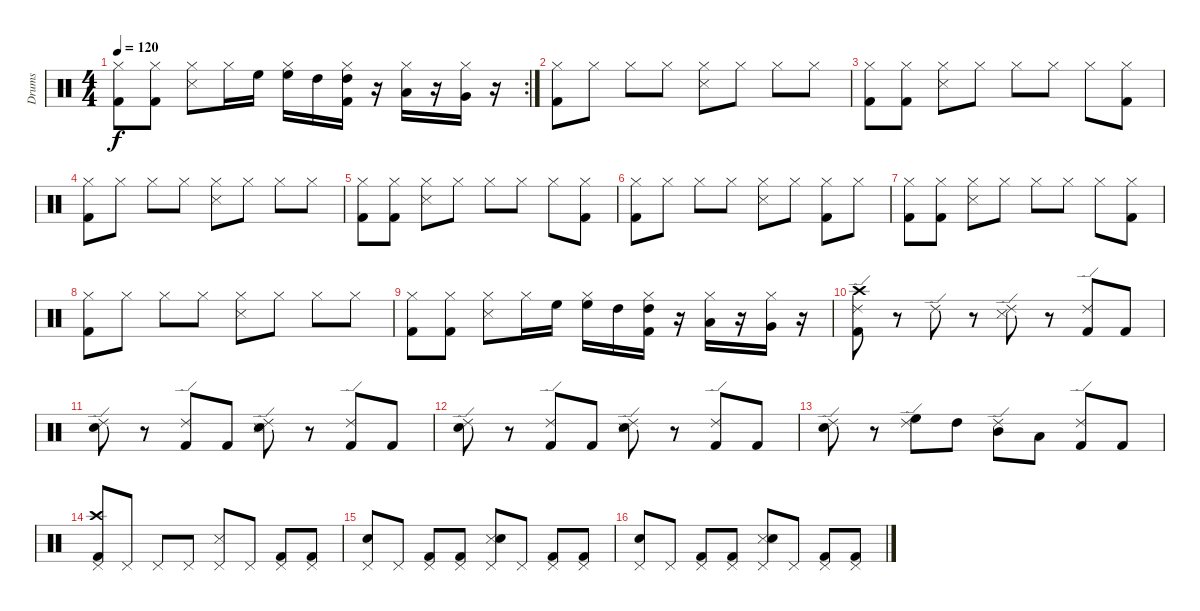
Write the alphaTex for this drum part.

\track ("Drums" "Drums") {instrument percussion}
\staff {score}
\articulation defaults
\rc 2
\ts (4 4)
\tempo 120
\clef neutral
\ks c
("Hi-Hat (closed)" "Kick (hit) 2").8{dy f} ("Hi-Hat (closed)" "Kick (hit) 2").8 ("Hi-Hat (closed)" "Snare (side stick) 3").8 "Hi-Hat (closed)".16 "High Floor Tom (hit)".16 ("Hi-Hat (closed)" "High Floor Tom (hit)").16 "High Tom (hit)".16 ("Hi-Hat (closed)" "Kick (hit) 2" "High Tom (hit)").16 r.16 ("Hi-Hat (closed)" "Low Tom (hit)").16 r.16 ("Hi-Hat (closed)" "Very Low Tom (hit)").16 r.16 |
("Hi-Hat (closed)" "Kick (hit) 2").8 "Hi-Hat (closed)".8 "Hi-Hat (closed)".8 "Hi-Hat (closed)".8 ("Hi-Hat (closed)" "Snare (side stick) 3").8 "Hi-Hat (closed)".8 "Hi-Hat (closed)".8 "Hi-Hat (closed)".8 |
("Hi-Hat (closed)" "Kick (hit) 2").8 ("Hi-Hat (closed)" "Kick (hit) 2").8 ("Hi-Hat (closed)" "Snare (side stick) 3").8 "Hi-Hat (closed)".8 "Hi-Hat (closed)".8 "Hi-Hat (closed)".8 "Hi-Hat (closed)".8 ("Hi-Hat (closed)" "Kick (hit) 2").8 |
("Hi-Hat (closed)" "Kick (hit) 2").8 "Hi-Hat (closed)".8 "Hi-Hat (closed)".8 "Hi-Hat (closed)".8 ("Hi-Hat (closed)" "Snare (side stick) 3").8 "Hi-Hat (closed)".8 "Hi-Hat (closed)".8 "Hi-Hat (closed)".8 |
("Hi-Hat (closed)" "Kick (hit) 2").8 ("Hi-Hat (closed)" "Kick (hit) 2").8 ("Hi-Hat (closed)" "Snare (side stick) 3").8 "Hi-Hat (closed)".8 "Hi-Hat (closed)".8 "Hi-Hat (closed)".8 "Hi-Hat (closed)".8 ("Hi-Hat (closed)" "Kick (hit) 2").8 |
("Hi-Hat (closed)" "Kick (hit) 2").8 "Hi-Hat (closed)".8 "Hi-Hat (closed)".8 "Hi-Hat (closed)".8 ("Hi-Hat (closed)" "Snare (side stick) 3").8 "Hi-Hat (closed)".8 ("Hi-Hat (closed)" "Kick (hit) 2").8 "Hi-Hat (closed)".8 |
("Hi-Hat (closed)" "Kick (hit) 2").8 ("Hi-Hat (closed)" "Kick (hit) 2").8 ("Hi-Hat (closed)" "Snare (side stick) 3").8 "Hi-Hat (closed)".8 "Hi-Hat (closed)".8 "Hi-Hat (closed)".8 "Hi-Hat (closed)".8 ("Hi-Hat (closed)" "Kick (hit) 2").8 |
("Hi-Hat (closed)" "Kick (hit) 2").8 "Hi-Hat (closed)".8 "Hi-Hat (closed)".8 "Hi-Hat (closed)".8 ("Hi-Hat (closed)" "Snare (side stick) 3").8 "Hi-Hat (closed)".8 "Hi-Hat (closed)".8 "Hi-Hat (closed)".8 |
("Hi-Hat (closed)" "Kick (hit) 2").8 ("Hi-Hat (closed)" "Kick (hit) 2").8 ("Hi-Hat (closed)" "Snare (side stick) 3").8 "Hi-Hat (closed)".16 "High Floor Tom (hit)".16 ("Hi-Hat (closed)" "High Floor Tom (hit)").16 "High Tom (hit)".16 ("Hi-Hat (closed)" "Kick (hit) 2" "High Tom (hit)").16 r.16 ("Hi-Hat (closed)" "Low Tom (hit)").16 r.16 ("Hi-Hat (closed)" "Very Low Tom (hit)").16 r.16 |
("Ride (edge) 2" "Kick (hit) 2" "Crash high (hit)").8 r.8 "Ride (edge) 2".8 r.8 ("Ride (edge) 2" "Snare (side stick) 3").8 r.8 ("Ride (edge) 2" "Kick (hit) 2").8 "Kick (hit) 2".8 |
("Ride (edge) 2" "Electric Snare (hit)").8 r.8 ("Ride (edge) 2" "Kick (hit) 2").8 "Kick (hit) 2".8 ("Ride (edge) 2" "Snare (side stick) 3" "Snare (hit) 2").8 r.8 ("Ride (edge) 2" "Kick (hit) 2").8 "Kick (hit) 2".8 |
("Ride (edge) 2" "Electric Snare (hit)").8 r.8 ("Ride (edge) 2" "Kick (hit) 2").8 "Kick (hit) 2".8 ("Ride (edge) 2" "Snare (side stick) 3" "Snare (hit) 2").8 r.8 ("Ride (edge) 2" "Kick (hit) 2").8 "Kick (hit) 2".8 |
("Ride (edge) 2" "Electric Snare (hit)").8 r.8 ("Ride (edge) 2" "High Floor Tom (hit)").8 "High Tom (hit)".8 ("Ride (edge) 2" "Mid Tom (hit)").8 "Low Tom (hit)".8 ("Ride (edge) 2" "Kick (hit) 2").8 "Kick (hit) 2".8 |
("Pedal Hi-Hat (hit)" "Kick (hit) 2" "Crash high (hit)").8 "Pedal Hi-Hat (hit)".8 "Pedal Hi-Hat (hit)".8 "Pedal Hi-Hat (hit)".8 ("Pedal Hi-Hat (hit)" "Snare (side stick) 3").8 "Pedal Hi-Hat (hit)".8 ("Pedal Hi-Hat (hit)" "Kick (hit) 2").8 ("Pedal Hi-Hat (hit)" "Kick (hit) 2").8 |
("Pedal Hi-Hat (hit)" "Electric Snare (hit)").8 "Pedal Hi-Hat (hit)".8 ("Pedal Hi-Hat (hit)" "Kick (hit) 2").8 ("Pedal Hi-Hat (hit)" "Kick (hit) 2").8 ("Pedal Hi-Hat (hit)" "Snare (side stick) 3" "Snare (hit) 2").8 "Pedal Hi-Hat (hit)".8 ("Pedal Hi-Hat (hit)" "Kick (hit) 2").8 ("Pedal Hi-Hat (hit)" "Kick (hit) 2").8 |
("Pedal Hi-Hat (hit)" "Electric Snare (hit)").8 "Pedal Hi-Hat (hit)".8 ("Pedal Hi-Hat (hit)" "Kick (hit) 2").8 ("Pedal Hi-Hat (hit)" "Kick (hit) 2").8 ("Pedal Hi-Hat (hit)" "Snare (side stick) 3" "Snare (hit) 2").8 "Pedal Hi-Hat (hit)".8 ("Pedal Hi-Hat (hit)" "Kick (hit) 2").8 ("Pedal Hi-Hat (hit)" "Kick (hit) 2").8
